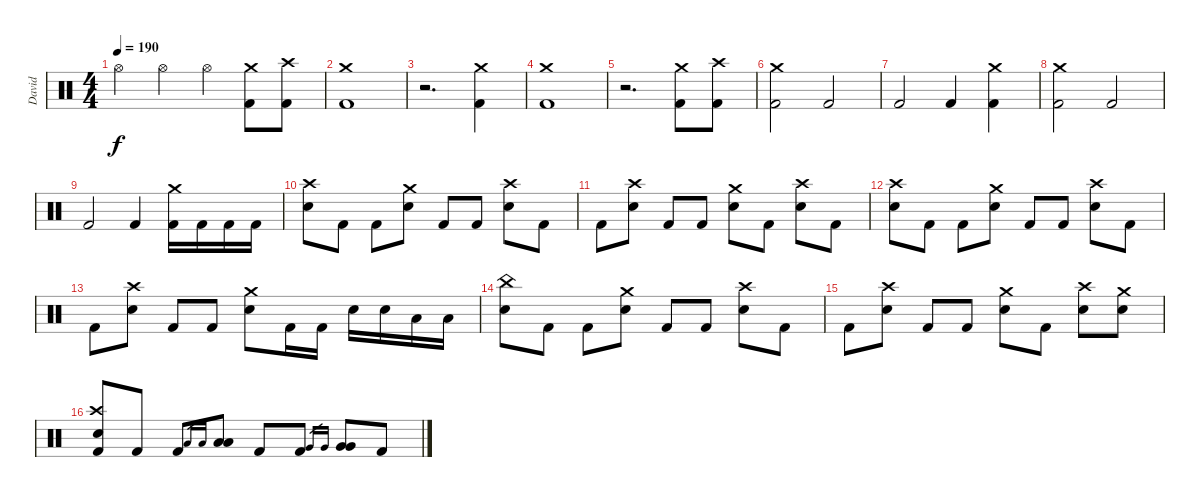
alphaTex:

\track ("David" "David") {instrument percussion}
\staff {score}
\articulation defaults
\ts (4 4)
\tempo 190
\clef neutral
\ks c "Hi-Hat (open)".4{dy f} "Hi-Hat (open)".4 "Hi-Hat (open)".4
("Crash medium (hit)" "Kick (hit) 2").8 ("Crash high (hit)" "Kick (hit) 2").8 |
("Crash medium (hit)" "Kick (hit) 2").1 |
r.2{d} ("Crash medium (hit)" "Kick (hit) 2").4 |
("Crash medium (hit)" "Kick (hit) 2").1 |
r.2{d} ("Crash medium (hit)" "Kick (hit) 2").8 ("Crash high (hit)" "Kick (hit) 2").8 |
("Crash medium (hit)" "Kick (hit) 2").2 "Kick (hit) 2".2 |
"Kick (hit) 2".2 "Kick (hit) 2".4 ("Crash medium (hit)" "Kick (hit) 2").4 |
("Crash medium (hit)" "Kick (hit) 2").2 "Kick (hit) 2".2 |
"Kick (hit) 2".2 "Kick (hit) 2".4 ("Crash medium (hit)" "Kick (hit) 2").16 "Kick (hit) 2".16 "Kick (hit) 2".16 "Kick (hit) 2".16 |
("Crash high (hit)" "Electric Snare (hit)").8 "Kick (hit) 2".8 "Kick (hit) 2".8 ("Crash medium (hit)" "Electric Snare (hit)").8 "Kick (hit) 2".8 "Kick (hit) 2".8 ("Crash high (hit)" "Electric Snare (hit)").8 "Kick (hit) 2".8 |
"Kick (hit) 2".8 ("Crash high (hit)" "Electric Snare (hit)").8 "Kick (hit) 2".8 "Kick (hit) 2".8 ("Crash medium (hit)" "Electric Snare (hit)").8 "Kick (hit) 2".8 ("Crash high (hit)" "Electric Snare (hit)").8 "Kick (hit) 2".8 |
("Crash high (hit)" "Electric Snare (hit)").8 "Kick (hit) 2".8 "Kick (hit) 2".8 ("Crash medium (hit)" "Electric Snare (hit)").8 "Kick (hit) 2".8 "Kick (hit) 2".8 ("Crash high (hit)" "Electric Snare (hit)").8 "Kick (hit) 2".8 |
"Kick (hit) 2".8 ("Crash high (hit)" "Electric Snare (hit)").8 "Kick (hit) 2".8 "Kick (hit) 2".8 ("Crash medium (hit)" "Electric Snare (hit)").8 "Kick (hit) 2".16 "Kick (hit) 2".16 "Electric Snare (hit)".16 "Electric Snare (hit)".16 "Low Tom (hit)".16 "Low Tom (hit)".16 |
("China (hit)" "Electric Snare (hit)").8 "Kick (hit) 2".8 "Kick (hit) 2".8 ("Crash medium (hit)" "Electric Snare (hit)").8 "Kick (hit) 2".8 "Kick (hit) 2".8 ("Crash high (hit)" "Electric Snare (hit)").8 "Kick (hit) 2".8 |
"Kick (hit) 2".8 ("Crash high (hit)" "Electric Snare (hit)").8 "Kick (hit) 2".8 "Kick (hit) 2".8 ("Crash medium (hit)" "Electric Snare (hit)").8 "Kick (hit) 2".8 ("Crash high (hit)" "Electric Snare (hit)").8 ("Crash medium (hit)" "Electric Snare (hit)").8 |
("Crash high (hit)" "Electric Snare (hit)" "Kick (hit) 2").8 "Kick (hit) 2".8 "Kick (hit) 2".8 "Low Tom (hit)".16{gr} "Low Tom (hit)".16{gr} ("Low Tom (hit)" "Low Tom (hit)").8 "Kick (hit) 2".8 "Kick (hit) 2".8 "Very Low Tom (hit)".16{gr} "Very Low Tom (hit)".16{gr} ("Very Low Tom (hit)" "Very Low Tom (hit)").8 "Kick (hit) 2".8
